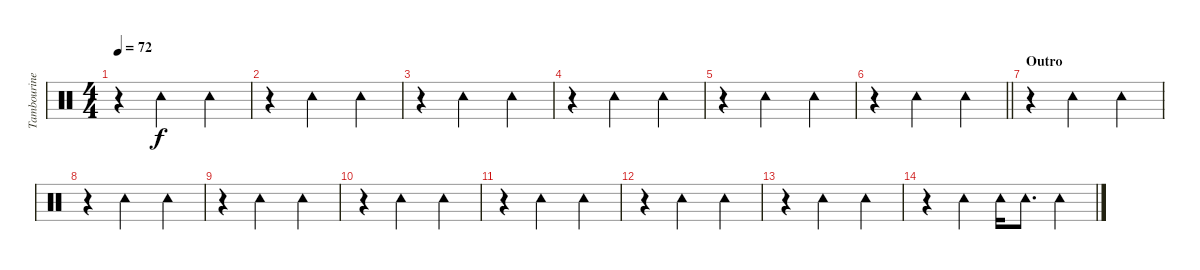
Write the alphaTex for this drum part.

\track ("Tambourine" "Tambourine") {instrument percussion}
\staff {score}
\articulation defaults
\ts (4 4)
\tempo 72
\clef neutral
\ks c
r.4{dy f} "Tambourine (hit)".2 "Tambourine (hit)".4 |
r.4 "Tambourine (hit)".2 "Tambourine (hit)".4 |
r.4 "Tambourine (hit)".2 "Tambourine (hit)".4 |
r.4 "Tambourine (hit)".2 "Tambourine (hit)".4 |
r.4 "Tambourine (hit)".2 "Tambourine (hit)".4 |
\barLineRight lightlight
r.4 "Tambourine (hit)".2 "Tambourine (hit)".4 |
\section ("" "Outro")
r.4 "Tambourine (hit)".2 "Tambourine (hit)".4 |
r.4 "Tambourine (hit)".2 "Tambourine (hit)".4 |
r.4 "Tambourine (hit)".2 "Tambourine (hit)".4 |
r.4 "Tambourine (hit)".2 "Tambourine (hit)".4 |
r.4 "Tambourine (hit)".2 "Tambourine (hit)".4 |
r.4 "Tambourine (hit)".2 "Tambourine (hit)".4 |
r.4 "Tambourine (hit)".2 "Tambourine (hit)".4 |
r.4 "Tambourine (hit)".4 "Tambourine (hit)".16 "Tambourine (hit)".8{d} "Tambourine (hit)".4
